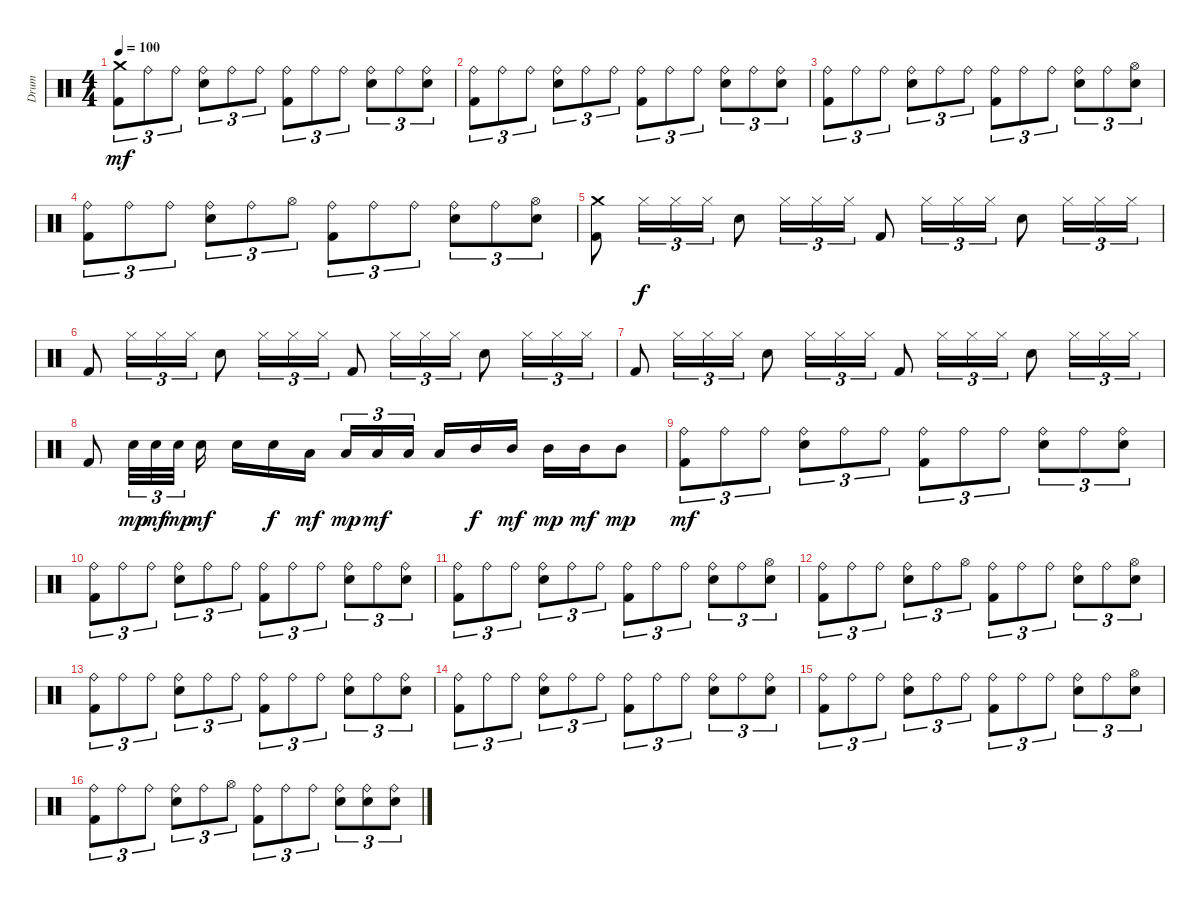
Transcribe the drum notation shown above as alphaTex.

\track ("Drum" "Drum") {instrument percussion}
\staff {score}
\articulation defaults
\ts (4 4)
\tempo 100
\clef neutral
\ks c
("Crash medium (hit)" "Kick (hit) 2").8{tu (3 2) dy mf} "Ride (bell)".8{tu (3 2)} "Ride (bell)".8{tu (3 2)} ("Ride (bell)" "Electric Snare (hit)").8{tu (3 2)} "Ride (bell)".8{tu (3 2)} "Ride (bell)".8{tu (3 2)} ("Ride (bell)" "Kick (hit) 2").8{tu (3 2)} "Ride (bell)".8{tu (3 2)} "Ride (bell)".8{tu (3 2)} ("Ride (bell)" "Electric Snare (hit)").8{tu (3 2)} "Ride (bell)".8{tu (3 2)} ("Ride (bell)" "Electric Snare (hit)").8{tu (3 2)} |
("Ride (bell)" "Kick (hit) 2").8{tu (3 2)} "Ride (bell)".8{tu (3 2)} "Ride (bell)".8{tu (3 2)} ("Ride (bell)" "Electric Snare (hit)").8{tu (3 2)} "Ride (bell)".8{tu (3 2)} "Ride (bell)".8{tu (3 2)} ("Ride (bell)" "Kick (hit) 2").8{tu (3 2)} "Ride (bell)".8{tu (3 2)} "Ride (bell)".8{tu (3 2)} ("Ride (bell)" "Electric Snare (hit)").8{tu (3 2)} "Ride (bell)".8{tu (3 2)} ("Ride (bell)" "Electric Snare (hit)").8{tu (3 2)} |
("Ride (bell)" "Kick (hit) 2").8{tu (3 2)} "Ride (bell)".8{tu (3 2)} "Ride (bell)".8{tu (3 2)} ("Ride (bell)" "Electric Snare (hit)").8{tu (3 2)} "Ride (bell)".8{tu (3 2)} "Ride (bell)".8{tu (3 2)} ("Ride (bell)" "Kick (hit) 2").8{tu (3 2)} "Ride (bell)".8{tu (3 2)} "Ride (bell)".8{tu (3 2)} ("Ride (bell)" "Electric Snare (hit)").8{tu (3 2)} "Ride (bell)".8{tu (3 2)} ("Hi-Hat (open)" "Electric Snare (hit)").8{tu (3 2)} |
("Ride (bell)" "Kick (hit) 2").8{tu (3 2)} "Ride (bell)".8{tu (3 2)} "Ride (bell)".8{tu (3 2)} ("Ride (bell)" "Electric Snare (hit)").8{tu (3 2)} "Ride (bell)".8{tu (3 2)} "Hi-Hat (open)".8{tu (3 2)} ("Ride (bell)" "Kick (hit) 2").8{tu (3 2)} "Ride (bell)".8{tu (3 2)} "Ride (bell)".8{tu (3 2)} ("Ride (bell)" "Electric Snare (hit)").8{tu (3 2)} "Ride (bell)".8{tu (3 2)} ("Hi-Hat (open)" "Electric Snare (hit)").8{tu (3 2)} |
("Crash medium (hit)" "Kick (hit) 2").8 "Hi-Hat (closed)".16{tu (3 2) dy f} "Hi-Hat (closed)".16{tu (3 2)} "Hi-Hat (closed)".16{tu (3 2)} "Electric Snare (hit)".8 "Hi-Hat (closed)".16{tu (3 2)} "Hi-Hat (closed)".16{tu (3 2)} "Hi-Hat (closed)".16{tu (3 2)} "Kick (hit) 2".8 "Hi-Hat (closed)".16{tu (3 2)} "Hi-Hat (closed)".16{tu (3 2)} "Hi-Hat (closed)".16{tu (3 2)} "Electric Snare (hit)".8 "Hi-Hat (closed)".16{tu (3 2)} "Hi-Hat (closed)".16{tu (3 2)} "Hi-Hat (closed)".16{tu (3 2)} |
"Kick (hit) 2".8 "Hi-Hat (closed)".16{tu (3 2)} "Hi-Hat (closed)".16{tu (3 2)} "Hi-Hat (closed)".16{tu (3 2)} "Electric Snare (hit)".8 "Hi-Hat (closed)".16{tu (3 2)} "Hi-Hat (closed)".16{tu (3 2)} "Hi-Hat (closed)".16{tu (3 2)} "Kick (hit) 2".8 "Hi-Hat (closed)".16{tu (3 2)} "Hi-Hat (closed)".16{tu (3 2)} "Hi-Hat (closed)".16{tu (3 2)} "Electric Snare (hit)".8 "Hi-Hat (closed)".16{tu (3 2)} "Hi-Hat (closed)".16{tu (3 2)} "Hi-Hat (closed)".16{tu (3 2)} |
"Kick (hit) 2".8 "Hi-Hat (closed)".16{tu (3 2)} "Hi-Hat (closed)".16{tu (3 2)} "Hi-Hat (closed)".16{tu (3 2)} "Electric Snare (hit)".8 "Hi-Hat (closed)".16{tu (3 2)} "Hi-Hat (closed)".16{tu (3 2)} "Hi-Hat (closed)".16{tu (3 2)} "Kick (hit) 2".8 "Hi-Hat (closed)".16{tu (3 2)} "Hi-Hat (closed)".16{tu (3 2)} "Hi-Hat (closed)".16{tu (3 2)} "Electric Snare (hit)".8 "Hi-Hat (closed)".16{tu (3 2)} "Hi-Hat (closed)".16{tu (3 2)} "Hi-Hat (closed)".16{tu (3 2)} |
"Kick (hit) 2".8 "Electric Snare (hit)".32{tu (3 2) dy mp} "Electric Snare (hit)".32{tu (3 2) dy mf} "Electric Snare (hit)".32{tu (3 2) dy mp} "Electric Snare (hit)".16{dy mf} "Electric Snare (hit)".16 "Electric Snare (hit)".16{dy f} "Low Tom (hit)".16{dy mf} "Low Tom (hit)".16{tu (3 2) dy mp} "Low Tom (hit)".16{tu (3 2) dy mf} "Low Tom (hit)".16{tu (3 2)} "Low Tom (hit)".16 "Mid Tom (hit)".16{dy f} "Mid Tom (hit)".16{dy mf} "Mid Tom (hit)".16{dy mp} "Mid Tom (hit)".16{dy mf} "Mid Tom (hit)".8{dy mp} |
("Ride (bell)" "Kick (hit) 2").8{tu (3 2) dy mf} "Ride (bell)".8{tu (3 2)} "Ride (bell)".8{tu (3 2)} ("Ride (bell)" "Electric Snare (hit)").8{tu (3 2)} "Ride (bell)".8{tu (3 2)} "Ride (bell)".8{tu (3 2)} ("Ride (bell)" "Kick (hit) 2").8{tu (3 2)} "Ride (bell)".8{tu (3 2)} "Ride (bell)".8{tu (3 2)} ("Ride (bell)" "Electric Snare (hit)").8{tu (3 2)} "Ride (bell)".8{tu (3 2)} ("Ride (bell)" "Electric Snare (hit)").8{tu (3 2)} |
("Ride (bell)" "Kick (hit) 2").8{tu (3 2)} "Ride (bell)".8{tu (3 2)} "Ride (bell)".8{tu (3 2)} ("Ride (bell)" "Electric Snare (hit)").8{tu (3 2)} "Ride (bell)".8{tu (3 2)} "Ride (bell)".8{tu (3 2)} ("Ride (bell)" "Kick (hit) 2").8{tu (3 2)} "Ride (bell)".8{tu (3 2)} "Ride (bell)".8{tu (3 2)} ("Ride (bell)" "Electric Snare (hit)").8{tu (3 2)} "Ride (bell)".8{tu (3 2)} ("Ride (bell)" "Electric Snare (hit)").8{tu (3 2)} |
("Ride (bell)" "Kick (hit) 2").8{tu (3 2)} "Ride (bell)".8{tu (3 2)} "Ride (bell)".8{tu (3 2)} ("Ride (bell)" "Electric Snare (hit)").8{tu (3 2)} "Ride (bell)".8{tu (3 2)} "Ride (bell)".8{tu (3 2)} ("Ride (bell)" "Kick (hit) 2").8{tu (3 2)} "Ride (bell)".8{tu (3 2)} "Ride (bell)".8{tu (3 2)} ("Ride (bell)" "Electric Snare (hit)").8{tu (3 2)} "Ride (bell)".8{tu (3 2)} ("Hi-Hat (open)" "Electric Snare (hit)").8{tu (3 2)} |
("Ride (bell)" "Kick (hit) 2").8{tu (3 2)} "Ride (bell)".8{tu (3 2)} "Ride (bell)".8{tu (3 2)} ("Ride (bell)" "Electric Snare (hit)").8{tu (3 2)} "Ride (bell)".8{tu (3 2)} "Hi-Hat (open)".8{tu (3 2)} ("Ride (bell)" "Kick (hit) 2").8{tu (3 2)} "Ride (bell)".8{tu (3 2)} "Ride (bell)".8{tu (3 2)} ("Ride (bell)" "Electric Snare (hit)").8{tu (3 2)} "Ride (bell)".8{tu (3 2)} ("Hi-Hat (open)" "Electric Snare (hit)").8{tu (3 2)} |
("Ride (bell)" "Kick (hit) 2").8{tu (3 2)} "Ride (bell)".8{tu (3 2)} "Ride (bell)".8{tu (3 2)} ("Ride (bell)" "Electric Snare (hit)").8{tu (3 2)} "Ride (bell)".8{tu (3 2)} "Ride (bell)".8{tu (3 2)} ("Ride (bell)" "Kick (hit) 2").8{tu (3 2)} "Ride (bell)".8{tu (3 2)} "Ride (bell)".8{tu (3 2)} ("Ride (bell)" "Electric Snare (hit)").8{tu (3 2)} "Ride (bell)".8{tu (3 2)} ("Ride (bell)" "Electric Snare (hit)").8{tu (3 2)} |
("Ride (bell)" "Kick (hit) 2").8{tu (3 2)} "Ride (bell)".8{tu (3 2)} "Ride (bell)".8{tu (3 2)} ("Ride (bell)" "Electric Snare (hit)").8{tu (3 2)} "Ride (bell)".8{tu (3 2)} "Ride (bell)".8{tu (3 2)} ("Ride (bell)" "Kick (hit) 2").8{tu (3 2)} "Ride (bell)".8{tu (3 2)} "Ride (bell)".8{tu (3 2)} ("Ride (bell)" "Electric Snare (hit)").8{tu (3 2)} "Ride (bell)".8{tu (3 2)} ("Ride (bell)" "Electric Snare (hit)").8{tu (3 2)} |
("Ride (bell)" "Kick (hit) 2").8{tu (3 2)} "Ride (bell)".8{tu (3 2)} "Ride (bell)".8{tu (3 2)} ("Ride (bell)" "Electric Snare (hit)").8{tu (3 2)} "Ride (bell)".8{tu (3 2)} "Ride (bell)".8{tu (3 2)} ("Ride (bell)" "Kick (hit) 2").8{tu (3 2)} "Ride (bell)".8{tu (3 2)} "Ride (bell)".8{tu (3 2)} ("Ride (bell)" "Electric Snare (hit)").8{tu (3 2)} "Ride (bell)".8{tu (3 2)} ("Hi-Hat (open)" "Electric Snare (hit)").8{tu (3 2)} |
("Ride (bell)" "Kick (hit) 2").8{tu (3 2)} "Ride (bell)".8{tu (3 2)} "Ride (bell)".8{tu (3 2)} ("Ride (bell)" "Electric Snare (hit)").8{tu (3 2)} "Ride (bell)".8{tu (3 2)} "Hi-Hat (open)".8{tu (3 2)} ("Ride (bell)" "Kick (hit) 2").8{tu (3 2)} "Ride (bell)".8{tu (3 2)} "Ride (bell)".8{tu (3 2)} ("Ride (bell)" "Electric Snare (hit)").8{tu (3 2)} ("Ride (bell)" "Electric Snare (hit)").8{tu (3 2)} ("Ride (bell)" "Electric Snare (hit)").8{tu (3 2)}
